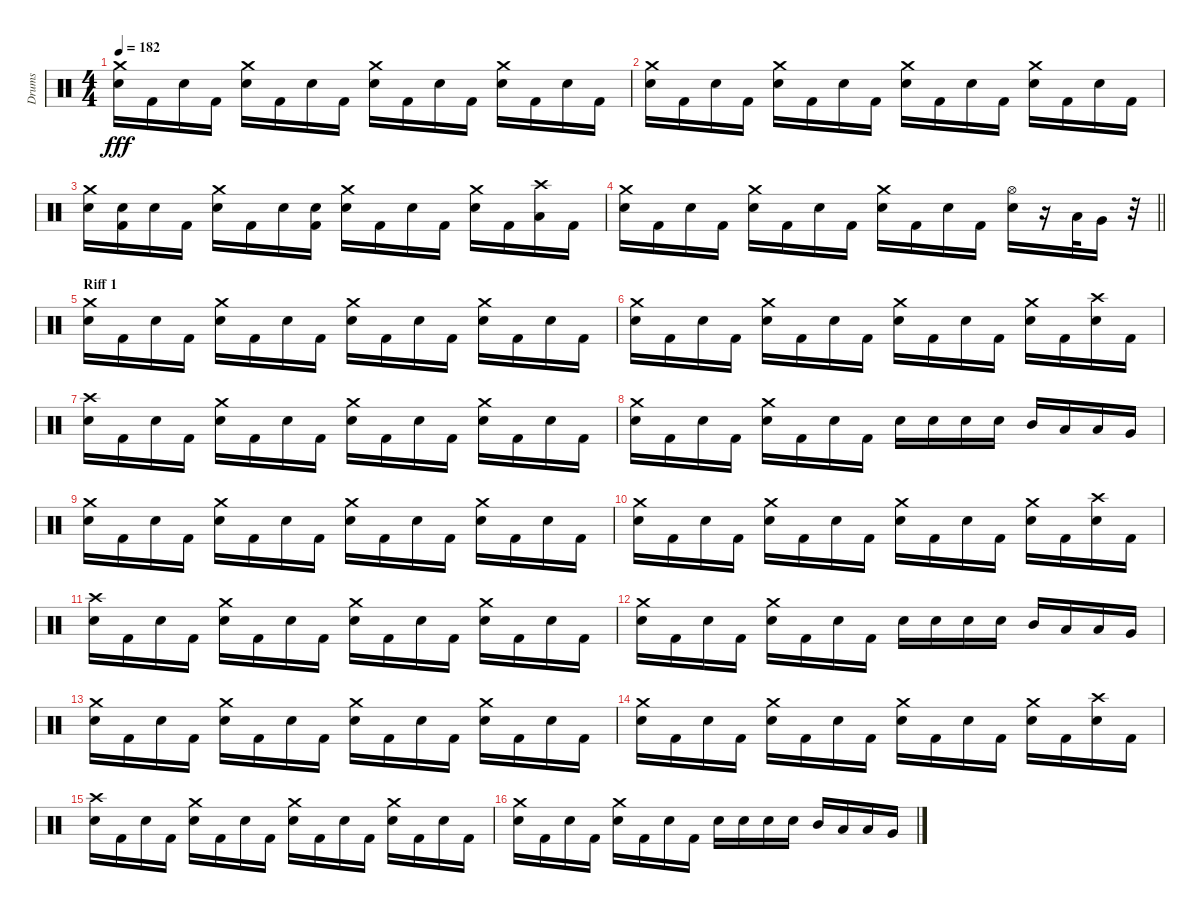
\track ("Drums" "Drums") {instrument percussion}
\staff {score}
\articulation defaults
\ts (4 4)
\tempo 182
\clef neutral
\ks c
("Crash medium (hit)" "Snare (hit) 2").16{dy fff} "Kick (hit) 2".16 "Snare (hit) 2".16 "Kick (hit) 2".16 ("Crash medium (hit)" "Snare (hit) 2").16 "Kick (hit) 2".16 "Snare (hit) 2".16 "Kick (hit) 2".16 ("Crash medium (hit)" "Snare (hit) 2").16 "Kick (hit) 2".16 "Snare (hit) 2".16 "Kick (hit) 2".16 ("Crash medium (hit)" "Snare (hit) 2").16 "Kick (hit) 2".16 "Snare (hit) 2".16 "Kick (hit) 2".16 |
("Crash medium (hit)" "Snare (hit) 2").16 "Kick (hit) 2".16 "Snare (hit) 2".16 "Kick (hit) 2".16 ("Crash medium (hit)" "Snare (hit) 2").16 "Kick (hit) 2".16 "Snare (hit) 2".16 "Kick (hit) 2".16 ("Crash medium (hit)" "Snare (hit) 2").16 "Kick (hit) 2".16 "Snare (hit) 2".16 "Kick (hit) 2".16 ("Crash medium (hit)" "Snare (hit) 2").16 "Kick (hit) 2".16 "Snare (hit) 2".16 "Kick (hit) 2".16 |
("Crash medium (hit)" "Snare (hit) 2").16 ("Kick (hit) 2" "Snare (hit) 2").16 "Snare (hit) 2".16 "Kick (hit) 2".16 ("Crash medium (hit)" "Snare (hit) 2").16 "Kick (hit) 2".16 "Snare (hit) 2".16 ("Kick (hit) 2" "Snare (hit) 2").16 ("Crash medium (hit)" "Snare (hit) 2").16 "Kick (hit) 2".16 "Snare (hit) 2".16 "Kick (hit) 2".16 ("Crash medium (hit)" "Snare (hit) 2").16 "Kick (hit) 2".16 ("Crash high (hit)" "Low Tom (hit)").16 "Kick (hit) 2".16 |
\barLineRight lightlight
("Crash medium (hit)" "Snare (hit) 2").16 "Kick (hit) 2".16 "Snare (hit) 2".16 "Kick (hit) 2".16 ("Crash medium (hit)" "Snare (hit) 2").16 "Kick (hit) 2".16 "Snare (hit) 2".16 "Kick (hit) 2".16 ("Crash medium (hit)" "Snare (hit) 2").16 "Kick (hit) 2".16 "Snare (hit) 2".16 "Kick (hit) 2".16 ("Hi-Hat (open)" "Snare (hit) 2").16 r.16 "Low Tom (hit)".32 "Very Low Tom (hit)".16 r.32 |
\section ("" "Riff 1")
("Crash medium (hit)" "Snare (hit) 2").16 "Kick (hit) 2".16 "Snare (hit) 2".16 "Kick (hit) 2".16 ("Crash medium (hit)" "Snare (hit) 2").16 "Kick (hit) 2".16 "Snare (hit) 2".16 "Kick (hit) 2".16 ("Crash medium (hit)" "Snare (hit) 2").16 "Kick (hit) 2".16 "Snare (hit) 2".16 "Kick (hit) 2".16 ("Crash medium (hit)" "Snare (hit) 2").16 "Kick (hit) 2".16 "Snare (hit) 2".16 "Kick (hit) 2".16 |
("Crash medium (hit)" "Snare (hit) 2").16 "Kick (hit) 2".16 "Snare (hit) 2".16 "Kick (hit) 2".16 ("Crash medium (hit)" "Snare (hit) 2").16 "Kick (hit) 2".16 "Snare (hit) 2".16 "Kick (hit) 2".16 ("Crash medium (hit)" "Snare (hit) 2").16 "Kick (hit) 2".16 "Snare (hit) 2".16 "Kick (hit) 2".16 ("Crash medium (hit)" "Snare (hit) 2").16 "Kick (hit) 2".16 ("Crash high (hit)" "Snare (hit) 2").16 "Kick (hit) 2".16 |
("Crash high (hit)" "Snare (hit) 2").16 "Kick (hit) 2".16 "Snare (hit) 2".16 "Kick (hit) 2".16 ("Crash medium (hit)" "Snare (hit) 2").16 "Kick (hit) 2".16 "Snare (hit) 2".16 "Kick (hit) 2".16 ("Crash medium (hit)" "Snare (hit) 2").16 "Kick (hit) 2".16 "Snare (hit) 2".16 "Kick (hit) 2".16 ("Crash medium (hit)" "Snare (hit) 2").16 "Kick (hit) 2".16 "Snare (hit) 2".16 "Kick (hit) 2".16 |
("Crash medium (hit)" "Snare (hit) 2").16 "Kick (hit) 2".16 "Snare (hit) 2".16 "Kick (hit) 2".16 ("Crash medium (hit)" "Snare (hit) 2").16 "Kick (hit) 2".16 "Snare (hit) 2".16 "Kick (hit) 2".16 "Snare (hit) 2".16 "Snare (hit) 2".16 "Snare (hit) 2".16 "Snare (hit) 2".16 "Mid Tom (hit)".16 "Low Tom (hit)".16 "Low Tom (hit)".16 "Very Low Tom (hit)".16 |
("Crash medium (hit)" "Snare (hit) 2").16 "Kick (hit) 2".16 "Snare (hit) 2".16 "Kick (hit) 2".16 ("Crash medium (hit)" "Snare (hit) 2").16 "Kick (hit) 2".16 "Snare (hit) 2".16 "Kick (hit) 2".16 ("Crash medium (hit)" "Snare (hit) 2").16 "Kick (hit) 2".16 "Snare (hit) 2".16 "Kick (hit) 2".16 ("Crash medium (hit)" "Snare (hit) 2").16 "Kick (hit) 2".16 "Snare (hit) 2".16 "Kick (hit) 2".16 |
("Crash medium (hit)" "Snare (hit) 2").16 "Kick (hit) 2".16 "Snare (hit) 2".16 "Kick (hit) 2".16 ("Crash medium (hit)" "Snare (hit) 2").16 "Kick (hit) 2".16 "Snare (hit) 2".16 "Kick (hit) 2".16 ("Crash medium (hit)" "Snare (hit) 2").16 "Kick (hit) 2".16 "Snare (hit) 2".16 "Kick (hit) 2".16 ("Crash medium (hit)" "Snare (hit) 2").16 "Kick (hit) 2".16 ("Crash high (hit)" "Snare (hit) 2").16 "Kick (hit) 2".16 |
("Crash high (hit)" "Snare (hit) 2").16 "Kick (hit) 2".16 "Snare (hit) 2".16 "Kick (hit) 2".16 ("Crash medium (hit)" "Snare (hit) 2").16 "Kick (hit) 2".16 "Snare (hit) 2".16 "Kick (hit) 2".16 ("Crash medium (hit)" "Snare (hit) 2").16 "Kick (hit) 2".16 "Snare (hit) 2".16 "Kick (hit) 2".16 ("Crash medium (hit)" "Snare (hit) 2").16 "Kick (hit) 2".16 "Snare (hit) 2".16 "Kick (hit) 2".16 |
("Crash medium (hit)" "Snare (hit) 2").16 "Kick (hit) 2".16 "Snare (hit) 2".16 "Kick (hit) 2".16 ("Crash medium (hit)" "Snare (hit) 2").16 "Kick (hit) 2".16 "Snare (hit) 2".16 "Kick (hit) 2".16 "Snare (hit) 2".16 "Snare (hit) 2".16 "Snare (hit) 2".16 "Snare (hit) 2".16 "Mid Tom (hit)".16 "Low Tom (hit)".16 "Low Tom (hit)".16 "Very Low Tom (hit)".16 |
("Crash medium (hit)" "Snare (hit) 2").16 "Kick (hit) 2".16 "Snare (hit) 2".16 "Kick (hit) 2".16 ("Crash medium (hit)" "Snare (hit) 2").16 "Kick (hit) 2".16 "Snare (hit) 2".16 "Kick (hit) 2".16 ("Crash medium (hit)" "Snare (hit) 2").16 "Kick (hit) 2".16 "Snare (hit) 2".16 "Kick (hit) 2".16 ("Crash medium (hit)" "Snare (hit) 2").16 "Kick (hit) 2".16 "Snare (hit) 2".16 "Kick (hit) 2".16 |
("Crash medium (hit)" "Snare (hit) 2").16 "Kick (hit) 2".16 "Snare (hit) 2".16 "Kick (hit) 2".16 ("Crash medium (hit)" "Snare (hit) 2").16 "Kick (hit) 2".16 "Snare (hit) 2".16 "Kick (hit) 2".16 ("Crash medium (hit)" "Snare (hit) 2").16 "Kick (hit) 2".16 "Snare (hit) 2".16 "Kick (hit) 2".16 ("Crash medium (hit)" "Snare (hit) 2").16 "Kick (hit) 2".16 ("Crash high (hit)" "Snare (hit) 2").16 "Kick (hit) 2".16 |
("Crash high (hit)" "Snare (hit) 2").16 "Kick (hit) 2".16 "Snare (hit) 2".16 "Kick (hit) 2".16 ("Crash medium (hit)" "Snare (hit) 2").16 "Kick (hit) 2".16 "Snare (hit) 2".16 "Kick (hit) 2".16 ("Crash medium (hit)" "Snare (hit) 2").16 "Kick (hit) 2".16 "Snare (hit) 2".16 "Kick (hit) 2".16 ("Crash medium (hit)" "Snare (hit) 2").16 "Kick (hit) 2".16 "Snare (hit) 2".16 "Kick (hit) 2".16 |
("Crash medium (hit)" "Snare (hit) 2").16 "Kick (hit) 2".16 "Snare (hit) 2".16 "Kick (hit) 2".16 ("Crash medium (hit)" "Snare (hit) 2").16 "Kick (hit) 2".16 "Snare (hit) 2".16 "Kick (hit) 2".16 "Snare (hit) 2".16 "Snare (hit) 2".16 "Snare (hit) 2".16 "Snare (hit) 2".16 "Mid Tom (hit)".16 "Low Tom (hit)".16 "Low Tom (hit)".16 "Very Low Tom (hit)".16
